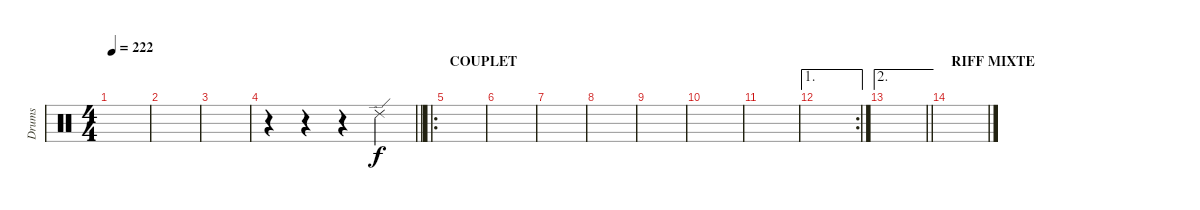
\track ("Drums" "Drums") {instrument percussion}
\staff {score}
\articulation defaults
\ts (4 4)
\tempo 222
\clef neutral
\ks c
|
|
|
\barLineRight lightlight
r.4 r.4 r.4 "Ride (edge) 2".4 |
\ro
\section ("" "COUPLET")
|
|
|
|
|
|
|
\ae 1
\rc 2
|
\ae 2
\barLineRight lightlight
|
\section ("" "RIFF MIXTE")
